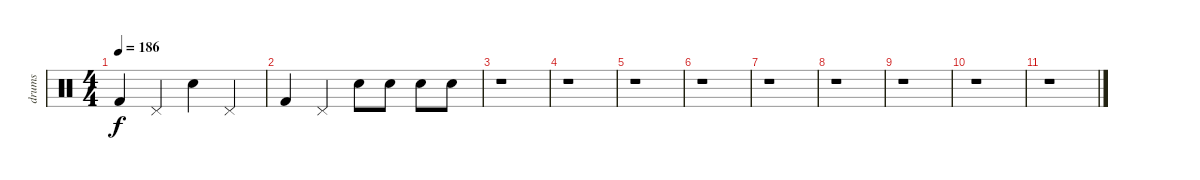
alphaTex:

\track ("drums" "drums") {instrument percussion}
\staff {score}
\articulation defaults
\ts (4 4)
\tempo 186
\clef neutral
\ks c "Kick (hit) 2".4{dy f} "Pedal Hi-Hat (hit)".4 "Electric Snare (hit)".4 "Pedal Hi-Hat (hit)".4
|
"Kick (hit) 2".4 "Pedal Hi-Hat (hit)".4 "Electric Snare (hit)".8 "Electric Snare (hit)".8 "Electric Snare (hit)".8 "Electric Snare (hit)".8 |
r.1 |
r.1 |
r.1 |
r.1 |
r.1 |
r.1 |
r.1 |
r.1 |
r.1
